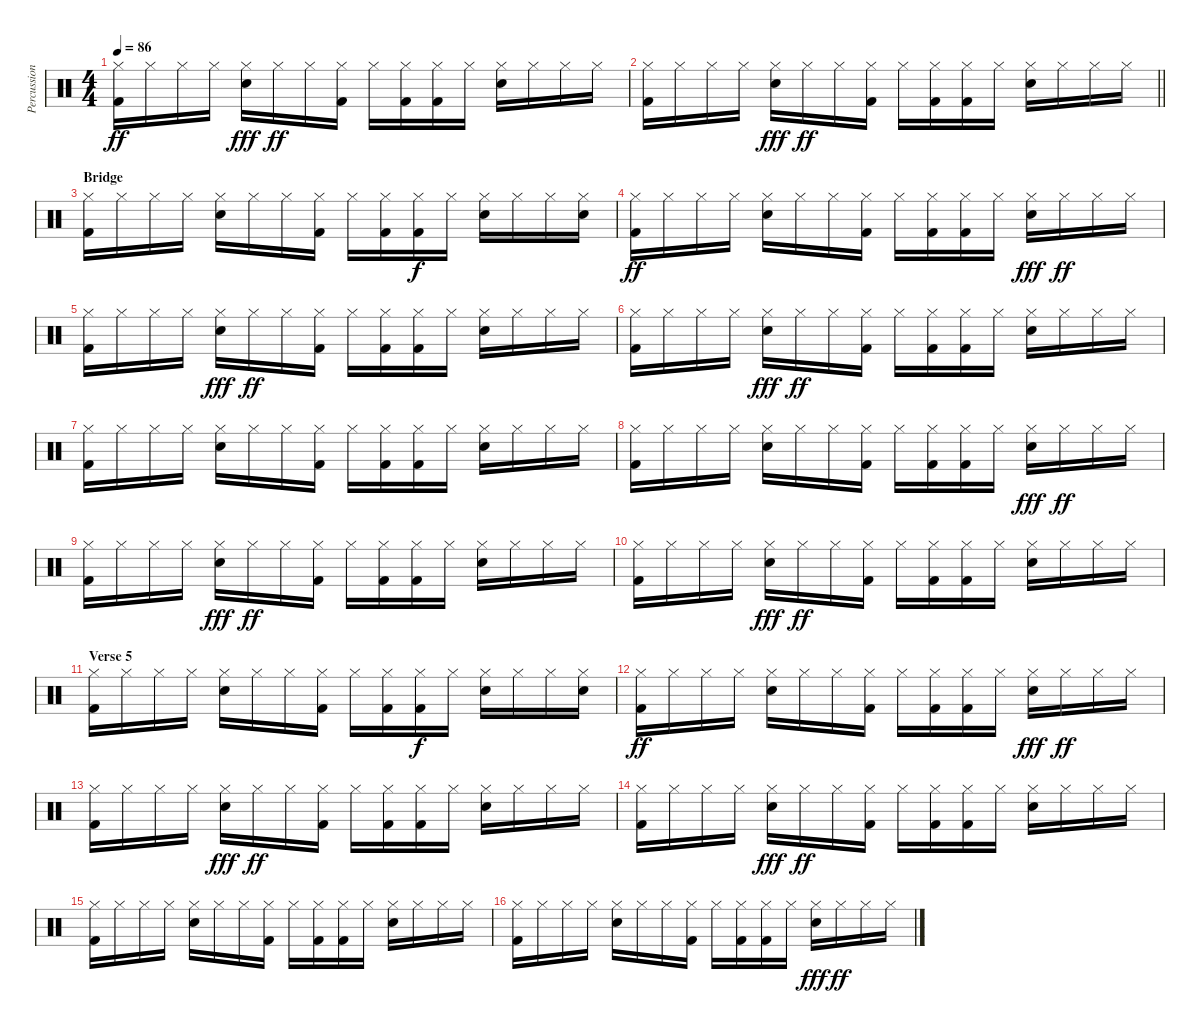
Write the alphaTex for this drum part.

\track ("Percussion" "Percussion") {instrument percussion}
\staff {score}
\articulation defaults
\ts (4 4)
\tempo 86
\clef neutral
\ks c
("Hi-Hat (closed)" "Kick (hit) 2").16{dy ff} "Hi-Hat (closed)".16 "Hi-Hat (closed)".16 "Hi-Hat (closed)".16 ("Snare (hit) 2" "Hi-Hat (closed)").16{dy fff} "Hi-Hat (closed)".16{dy ff} "Hi-Hat (closed)".16 ("Hi-Hat (closed)" "Kick (hit) 2").16 "Hi-Hat (closed)".16 ("Kick (hit) 2" "Hi-Hat (closed)").16 ("Kick (hit) 2" "Hi-Hat (closed)").16 "Hi-Hat (closed)".16 ("Hi-Hat (closed)" "Snare (hit) 2").16 "Hi-Hat (closed)".16 "Hi-Hat (closed)".16 "Hi-Hat (closed)".16 |
\barLineRight lightlight
("Hi-Hat (closed)" "Kick (hit) 2").16 "Hi-Hat (closed)".16 "Hi-Hat (closed)".16 "Hi-Hat (closed)".16 ("Snare (hit) 2" "Hi-Hat (closed)").16{dy fff} "Hi-Hat (closed)".16{dy ff} "Hi-Hat (closed)".16 ("Hi-Hat (closed)" "Kick (hit) 2").16 "Hi-Hat (closed)".16 ("Kick (hit) 2" "Hi-Hat (closed)").16 ("Kick (hit) 2" "Hi-Hat (closed)").16 "Hi-Hat (closed)".16 ("Hi-Hat (closed)" "Snare (hit) 2").16 "Hi-Hat (closed)".16 "Hi-Hat (closed)".16 "Hi-Hat (closed)".16 |
\section ("" "Bridge")
("Hi-Hat (closed)" "Kick (hit) 2").16 "Hi-Hat (closed)".16 "Hi-Hat (closed)".16 "Hi-Hat (closed)".16 ("Hi-Hat (closed)" "Snare (hit) 2").16 "Hi-Hat (closed)".16 "Hi-Hat (closed)".16 ("Hi-Hat (closed)" "Kick (hit) 2").16 "Hi-Hat (closed)".16 ("Hi-Hat (closed)" "Kick (hit) 2").16 ("Hi-Hat (closed)" "Kick (hit) 2").16{dy f} "Hi-Hat (closed)".16 ("Hi-Hat (closed)" "Snare (hit) 2").16 "Hi-Hat (closed)".16 "Hi-Hat (closed)".16 ("Hi-Hat (closed)" "Snare (hit) 2").16 |
("Hi-Hat (closed)" "Kick (hit) 2").16{dy ff} "Hi-Hat (closed)".16 "Hi-Hat (closed)".16 "Hi-Hat (closed)".16 ("Hi-Hat (closed)" "Snare (hit) 2").16 "Hi-Hat (closed)".16 "Hi-Hat (closed)".16 ("Hi-Hat (closed)" "Kick (hit) 2").16 "Hi-Hat (closed)".16 ("Hi-Hat (closed)" "Kick (hit) 2").16 ("Hi-Hat (closed)" "Kick (hit) 2").16 "Hi-Hat (closed)".16 ("Hi-Hat (closed)" "Snare (hit) 2").16{dy fff} "Hi-Hat (closed)".16{dy ff} "Hi-Hat (closed)".16 "Hi-Hat (closed)".16 |
("Hi-Hat (closed)" "Kick (hit) 2").16 "Hi-Hat (closed)".16 "Hi-Hat (closed)".16 "Hi-Hat (closed)".16 ("Snare (hit) 2" "Hi-Hat (closed)").16{dy fff} "Hi-Hat (closed)".16{dy ff} "Hi-Hat (closed)".16 ("Hi-Hat (closed)" "Kick (hit) 2").16 "Hi-Hat (closed)".16 ("Kick (hit) 2" "Hi-Hat (closed)").16 ("Kick (hit) 2" "Hi-Hat (closed)").16 "Hi-Hat (closed)".16 ("Hi-Hat (closed)" "Snare (hit) 2").16 "Hi-Hat (closed)".16 "Hi-Hat (closed)".16 "Hi-Hat (closed)".16 |
("Hi-Hat (closed)" "Kick (hit) 2").16 "Hi-Hat (closed)".16 "Hi-Hat (closed)".16 "Hi-Hat (closed)".16 ("Snare (hit) 2" "Hi-Hat (closed)").16{dy fff} "Hi-Hat (closed)".16{dy ff} "Hi-Hat (closed)".16 ("Hi-Hat (closed)" "Kick (hit) 2").16 "Hi-Hat (closed)".16 ("Kick (hit) 2" "Hi-Hat (closed)").16 ("Kick (hit) 2" "Hi-Hat (closed)").16 "Hi-Hat (closed)".16 ("Hi-Hat (closed)" "Snare (hit) 2").16 "Hi-Hat (closed)".16 "Hi-Hat (closed)".16 "Hi-Hat (closed)".16 |
("Hi-Hat (closed)" "Kick (hit) 2").16 "Hi-Hat (closed)".16 "Hi-Hat (closed)".16 "Hi-Hat (closed)".16 ("Hi-Hat (closed)" "Snare (hit) 2").16 "Hi-Hat (closed)".16 "Hi-Hat (closed)".16 ("Hi-Hat (closed)" "Kick (hit) 2").16 "Hi-Hat (closed)".16 ("Hi-Hat (closed)" "Kick (hit) 2").16 ("Hi-Hat (closed)" "Kick (hit) 2").16 "Hi-Hat (closed)".16 ("Hi-Hat (closed)" "Snare (hit) 2").16 "Hi-Hat (closed)".16 "Hi-Hat (closed)".16 "Hi-Hat (closed)".16 |
("Hi-Hat (closed)" "Kick (hit) 2").16 "Hi-Hat (closed)".16 "Hi-Hat (closed)".16 "Hi-Hat (closed)".16 ("Hi-Hat (closed)" "Snare (hit) 2").16 "Hi-Hat (closed)".16 "Hi-Hat (closed)".16 ("Hi-Hat (closed)" "Kick (hit) 2").16 "Hi-Hat (closed)".16 ("Hi-Hat (closed)" "Kick (hit) 2").16 ("Hi-Hat (closed)" "Kick (hit) 2").16 "Hi-Hat (closed)".16 ("Hi-Hat (closed)" "Snare (hit) 2").16{dy fff} "Hi-Hat (closed)".16{dy ff} "Hi-Hat (closed)".16 "Hi-Hat (closed)".16 |
("Hi-Hat (closed)" "Kick (hit) 2").16 "Hi-Hat (closed)".16 "Hi-Hat (closed)".16 "Hi-Hat (closed)".16 ("Snare (hit) 2" "Hi-Hat (closed)").16{dy fff} "Hi-Hat (closed)".16{dy ff} "Hi-Hat (closed)".16 ("Hi-Hat (closed)" "Kick (hit) 2").16 "Hi-Hat (closed)".16 ("Kick (hit) 2" "Hi-Hat (closed)").16 ("Kick (hit) 2" "Hi-Hat (closed)").16 "Hi-Hat (closed)".16 ("Hi-Hat (closed)" "Snare (hit) 2").16 "Hi-Hat (closed)".16 "Hi-Hat (closed)".16 "Hi-Hat (closed)".16 |
("Hi-Hat (closed)" "Kick (hit) 2").16 "Hi-Hat (closed)".16 "Hi-Hat (closed)".16 "Hi-Hat (closed)".16 ("Snare (hit) 2" "Hi-Hat (closed)").16{dy fff} "Hi-Hat (closed)".16{dy ff} "Hi-Hat (closed)".16 ("Hi-Hat (closed)" "Kick (hit) 2").16 "Hi-Hat (closed)".16 ("Kick (hit) 2" "Hi-Hat (closed)").16 ("Kick (hit) 2" "Hi-Hat (closed)").16 "Hi-Hat (closed)".16 ("Hi-Hat (closed)" "Snare (hit) 2").16 "Hi-Hat (closed)".16 "Hi-Hat (closed)".16 "Hi-Hat (closed)".16 |
\section ("" "Verse 5")
("Hi-Hat (closed)" "Kick (hit) 2").16 "Hi-Hat (closed)".16 "Hi-Hat (closed)".16 "Hi-Hat (closed)".16 ("Hi-Hat (closed)" "Snare (hit) 2").16 "Hi-Hat (closed)".16 "Hi-Hat (closed)".16 ("Hi-Hat (closed)" "Kick (hit) 2").16 "Hi-Hat (closed)".16 ("Hi-Hat (closed)" "Kick (hit) 2").16 ("Hi-Hat (closed)" "Kick (hit) 2").16{dy f} "Hi-Hat (closed)".16 ("Hi-Hat (closed)" "Snare (hit) 2").16 "Hi-Hat (closed)".16 "Hi-Hat (closed)".16 ("Hi-Hat (closed)" "Snare (hit) 2").16 |
("Hi-Hat (closed)" "Kick (hit) 2").16{dy ff} "Hi-Hat (closed)".16 "Hi-Hat (closed)".16 "Hi-Hat (closed)".16 ("Hi-Hat (closed)" "Snare (hit) 2").16 "Hi-Hat (closed)".16 "Hi-Hat (closed)".16 ("Hi-Hat (closed)" "Kick (hit) 2").16 "Hi-Hat (closed)".16 ("Hi-Hat (closed)" "Kick (hit) 2").16 ("Hi-Hat (closed)" "Kick (hit) 2").16 "Hi-Hat (closed)".16 ("Hi-Hat (closed)" "Snare (hit) 2").16{dy fff} "Hi-Hat (closed)".16{dy ff} "Hi-Hat (closed)".16 "Hi-Hat (closed)".16 |
("Hi-Hat (closed)" "Kick (hit) 2").16 "Hi-Hat (closed)".16 "Hi-Hat (closed)".16 "Hi-Hat (closed)".16 ("Snare (hit) 2" "Hi-Hat (closed)").16{dy fff} "Hi-Hat (closed)".16{dy ff} "Hi-Hat (closed)".16 ("Hi-Hat (closed)" "Kick (hit) 2").16 "Hi-Hat (closed)".16 ("Kick (hit) 2" "Hi-Hat (closed)").16 ("Kick (hit) 2" "Hi-Hat (closed)").16 "Hi-Hat (closed)".16 ("Hi-Hat (closed)" "Snare (hit) 2").16 "Hi-Hat (closed)".16 "Hi-Hat (closed)".16 "Hi-Hat (closed)".16 |
("Hi-Hat (closed)" "Kick (hit) 2").16 "Hi-Hat (closed)".16 "Hi-Hat (closed)".16 "Hi-Hat (closed)".16 ("Snare (hit) 2" "Hi-Hat (closed)").16{dy fff} "Hi-Hat (closed)".16{dy ff} "Hi-Hat (closed)".16 ("Hi-Hat (closed)" "Kick (hit) 2").16 "Hi-Hat (closed)".16 ("Kick (hit) 2" "Hi-Hat (closed)").16 ("Kick (hit) 2" "Hi-Hat (closed)").16 "Hi-Hat (closed)".16 ("Hi-Hat (closed)" "Snare (hit) 2").16 "Hi-Hat (closed)".16 "Hi-Hat (closed)".16 "Hi-Hat (closed)".16 |
("Hi-Hat (closed)" "Kick (hit) 2").16 "Hi-Hat (closed)".16 "Hi-Hat (closed)".16 "Hi-Hat (closed)".16 ("Hi-Hat (closed)" "Snare (hit) 2").16 "Hi-Hat (closed)".16 "Hi-Hat (closed)".16 ("Hi-Hat (closed)" "Kick (hit) 2").16 "Hi-Hat (closed)".16 ("Hi-Hat (closed)" "Kick (hit) 2").16 ("Hi-Hat (closed)" "Kick (hit) 2").16 "Hi-Hat (closed)".16 ("Hi-Hat (closed)" "Snare (hit) 2").16 "Hi-Hat (closed)".16 "Hi-Hat (closed)".16 "Hi-Hat (closed)".16 |
("Hi-Hat (closed)" "Kick (hit) 2").16 "Hi-Hat (closed)".16 "Hi-Hat (closed)".16 "Hi-Hat (closed)".16 ("Hi-Hat (closed)" "Snare (hit) 2").16 "Hi-Hat (closed)".16 "Hi-Hat (closed)".16 ("Hi-Hat (closed)" "Kick (hit) 2").16 "Hi-Hat (closed)".16 ("Hi-Hat (closed)" "Kick (hit) 2").16 ("Hi-Hat (closed)" "Kick (hit) 2").16 "Hi-Hat (closed)".16 ("Hi-Hat (closed)" "Snare (hit) 2").16{dy fff} "Hi-Hat (closed)".16{dy ff} "Hi-Hat (closed)".16 "Hi-Hat (closed)".16
